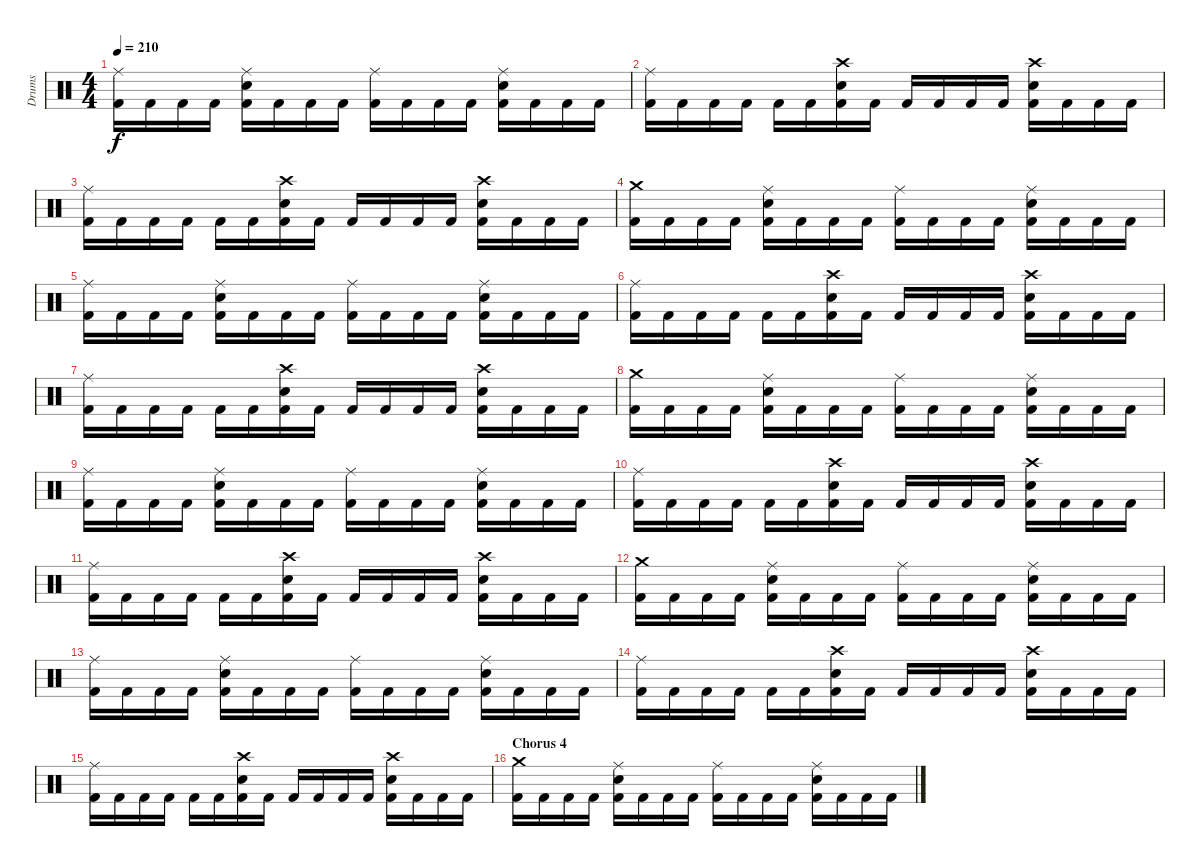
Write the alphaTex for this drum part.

\track ("Drums" "Drums") {instrument percussion}
\staff {score}
\articulation defaults
\ts (4 4)
\tempo 210
\clef neutral
\ks c
("Ride (middle)" "Kick (hit) 2").16{dy f} "Kick (hit) 2".16 "Kick (hit) 2".16 "Kick (hit) 2".16 ("Ride (middle)" "Snare (hit) 2" "Kick (hit) 2").16 "Kick (hit) 2".16 "Kick (hit) 2".16 "Kick (hit) 2".16 ("Ride (middle)" "Kick (hit) 2").16 "Kick (hit) 2".16 "Kick (hit) 2".16 "Kick (hit) 2".16 ("Ride (middle)" "Snare (hit) 2" "Kick (hit) 2").16 "Kick (hit) 2".16 "Kick (hit) 2".16 "Kick (hit) 2".16 |
("Ride (middle)" "Kick (hit) 2").16 "Kick (hit) 2".16 "Kick (hit) 2".16 "Kick (hit) 2".16 "Kick (hit) 2".16 "Kick (hit) 2".16 ("Crash high (hit)" "Snare (hit) 2" "Kick (hit) 2").16 "Kick (hit) 2".16 "Kick (hit) 2".16 "Kick (hit) 2".16 "Kick (hit) 2".16 "Kick (hit) 2".16 ("Crash high (hit)" "Snare (hit) 2" "Kick (hit) 2").16 "Kick (hit) 2".16 "Kick (hit) 2".16 "Kick (hit) 2".16 |
("Ride (middle)" "Kick (hit) 2").16 "Kick (hit) 2".16 "Kick (hit) 2".16 "Kick (hit) 2".16 "Kick (hit) 2".16 "Kick (hit) 2".16 ("Crash high (hit)" "Snare (hit) 2" "Kick (hit) 2").16 "Kick (hit) 2".16 "Kick (hit) 2".16 "Kick (hit) 2".16 "Kick (hit) 2".16 "Kick (hit) 2".16 ("Crash high (hit)" "Snare (hit) 2" "Kick (hit) 2").16 "Kick (hit) 2".16 "Kick (hit) 2".16 "Kick (hit) 2".16 |
("Crash medium (hit)" "Kick (hit) 2").16 "Kick (hit) 2".16 "Kick (hit) 2".16 "Kick (hit) 2".16 ("Ride (middle)" "Snare (hit) 2" "Kick (hit) 2").16 "Kick (hit) 2".16 "Kick (hit) 2".16 "Kick (hit) 2".16 ("Ride (middle)" "Kick (hit) 2").16 "Kick (hit) 2".16 "Kick (hit) 2".16 "Kick (hit) 2".16 ("Ride (middle)" "Snare (hit) 2" "Kick (hit) 2").16 "Kick (hit) 2".16 "Kick (hit) 2".16 "Kick (hit) 2".16 |
("Ride (middle)" "Kick (hit) 2").16 "Kick (hit) 2".16 "Kick (hit) 2".16 "Kick (hit) 2".16 ("Ride (middle)" "Snare (hit) 2" "Kick (hit) 2").16 "Kick (hit) 2".16 "Kick (hit) 2".16 "Kick (hit) 2".16 ("Ride (middle)" "Kick (hit) 2").16 "Kick (hit) 2".16 "Kick (hit) 2".16 "Kick (hit) 2".16 ("Ride (middle)" "Snare (hit) 2" "Kick (hit) 2").16 "Kick (hit) 2".16 "Kick (hit) 2".16 "Kick (hit) 2".16 |
("Ride (middle)" "Kick (hit) 2").16 "Kick (hit) 2".16 "Kick (hit) 2".16 "Kick (hit) 2".16 "Kick (hit) 2".16 "Kick (hit) 2".16 ("Crash high (hit)" "Snare (hit) 2" "Kick (hit) 2").16 "Kick (hit) 2".16 "Kick (hit) 2".16 "Kick (hit) 2".16 "Kick (hit) 2".16 "Kick (hit) 2".16 ("Crash high (hit)" "Snare (hit) 2" "Kick (hit) 2").16 "Kick (hit) 2".16 "Kick (hit) 2".16 "Kick (hit) 2".16 |
("Ride (middle)" "Kick (hit) 2").16 "Kick (hit) 2".16 "Kick (hit) 2".16 "Kick (hit) 2".16 "Kick (hit) 2".16 "Kick (hit) 2".16 ("Crash high (hit)" "Snare (hit) 2" "Kick (hit) 2").16 "Kick (hit) 2".16 "Kick (hit) 2".16 "Kick (hit) 2".16 "Kick (hit) 2".16 "Kick (hit) 2".16 ("Crash high (hit)" "Snare (hit) 2" "Kick (hit) 2").16 "Kick (hit) 2".16 "Kick (hit) 2".16 "Kick (hit) 2".16 |
("Crash medium (hit)" "Kick (hit) 2").16 "Kick (hit) 2".16 "Kick (hit) 2".16 "Kick (hit) 2".16 ("Ride (middle)" "Snare (hit) 2" "Kick (hit) 2").16 "Kick (hit) 2".16 "Kick (hit) 2".16 "Kick (hit) 2".16 ("Ride (middle)" "Kick (hit) 2").16 "Kick (hit) 2".16 "Kick (hit) 2".16 "Kick (hit) 2".16 ("Ride (middle)" "Snare (hit) 2" "Kick (hit) 2").16 "Kick (hit) 2".16 "Kick (hit) 2".16 "Kick (hit) 2".16 |
("Ride (middle)" "Kick (hit) 2").16 "Kick (hit) 2".16 "Kick (hit) 2".16 "Kick (hit) 2".16 ("Ride (middle)" "Snare (hit) 2" "Kick (hit) 2").16 "Kick (hit) 2".16 "Kick (hit) 2".16 "Kick (hit) 2".16 ("Ride (middle)" "Kick (hit) 2").16 "Kick (hit) 2".16 "Kick (hit) 2".16 "Kick (hit) 2".16 ("Ride (middle)" "Snare (hit) 2" "Kick (hit) 2").16 "Kick (hit) 2".16 "Kick (hit) 2".16 "Kick (hit) 2".16 |
("Ride (middle)" "Kick (hit) 2").16 "Kick (hit) 2".16 "Kick (hit) 2".16 "Kick (hit) 2".16 "Kick (hit) 2".16 "Kick (hit) 2".16 ("Crash high (hit)" "Snare (hit) 2" "Kick (hit) 2").16 "Kick (hit) 2".16 "Kick (hit) 2".16 "Kick (hit) 2".16 "Kick (hit) 2".16 "Kick (hit) 2".16 ("Crash high (hit)" "Snare (hit) 2" "Kick (hit) 2").16 "Kick (hit) 2".16 "Kick (hit) 2".16 "Kick (hit) 2".16 |
("Ride (middle)" "Kick (hit) 2").16 "Kick (hit) 2".16 "Kick (hit) 2".16 "Kick (hit) 2".16 "Kick (hit) 2".16 "Kick (hit) 2".16 ("Crash high (hit)" "Snare (hit) 2" "Kick (hit) 2").16 "Kick (hit) 2".16 "Kick (hit) 2".16 "Kick (hit) 2".16 "Kick (hit) 2".16 "Kick (hit) 2".16 ("Crash high (hit)" "Snare (hit) 2" "Kick (hit) 2").16 "Kick (hit) 2".16 "Kick (hit) 2".16 "Kick (hit) 2".16 |
("Crash medium (hit)" "Kick (hit) 2").16 "Kick (hit) 2".16 "Kick (hit) 2".16 "Kick (hit) 2".16 ("Ride (middle)" "Snare (hit) 2" "Kick (hit) 2").16 "Kick (hit) 2".16 "Kick (hit) 2".16 "Kick (hit) 2".16 ("Ride (middle)" "Kick (hit) 2").16 "Kick (hit) 2".16 "Kick (hit) 2".16 "Kick (hit) 2".16 ("Ride (middle)" "Snare (hit) 2" "Kick (hit) 2").16 "Kick (hit) 2".16 "Kick (hit) 2".16 "Kick (hit) 2".16 |
("Ride (middle)" "Kick (hit) 2").16 "Kick (hit) 2".16 "Kick (hit) 2".16 "Kick (hit) 2".16 ("Ride (middle)" "Snare (hit) 2" "Kick (hit) 2").16 "Kick (hit) 2".16 "Kick (hit) 2".16 "Kick (hit) 2".16 ("Ride (middle)" "Kick (hit) 2").16 "Kick (hit) 2".16 "Kick (hit) 2".16 "Kick (hit) 2".16 ("Ride (middle)" "Snare (hit) 2" "Kick (hit) 2").16 "Kick (hit) 2".16 "Kick (hit) 2".16 "Kick (hit) 2".16 |
("Ride (middle)" "Kick (hit) 2").16 "Kick (hit) 2".16 "Kick (hit) 2".16 "Kick (hit) 2".16 "Kick (hit) 2".16 "Kick (hit) 2".16 ("Crash high (hit)" "Snare (hit) 2" "Kick (hit) 2").16 "Kick (hit) 2".16 "Kick (hit) 2".16 "Kick (hit) 2".16 "Kick (hit) 2".16 "Kick (hit) 2".16 ("Crash high (hit)" "Snare (hit) 2" "Kick (hit) 2").16 "Kick (hit) 2".16 "Kick (hit) 2".16 "Kick (hit) 2".16 |
("Ride (middle)" "Kick (hit) 2").16 "Kick (hit) 2".16 "Kick (hit) 2".16 "Kick (hit) 2".16 "Kick (hit) 2".16 "Kick (hit) 2".16 ("Crash high (hit)" "Snare (hit) 2" "Kick (hit) 2").16 "Kick (hit) 2".16 "Kick (hit) 2".16 "Kick (hit) 2".16 "Kick (hit) 2".16 "Kick (hit) 2".16 ("Crash high (hit)" "Snare (hit) 2" "Kick (hit) 2").16 "Kick (hit) 2".16 "Kick (hit) 2".16 "Kick (hit) 2".16 |
\section ("" "Chorus 4")
("Crash medium (hit)" "Kick (hit) 2").16 "Kick (hit) 2".16 "Kick (hit) 2".16 "Kick (hit) 2".16 ("Ride (middle)" "Snare (hit) 2" "Kick (hit) 2").16 "Kick (hit) 2".16 "Kick (hit) 2".16 "Kick (hit) 2".16 ("Ride (middle)" "Kick (hit) 2").16 "Kick (hit) 2".16 "Kick (hit) 2".16 "Kick (hit) 2".16 ("Ride (middle)" "Snare (hit) 2" "Kick (hit) 2").16 "Kick (hit) 2".16 "Kick (hit) 2".16 "Kick (hit) 2".16
